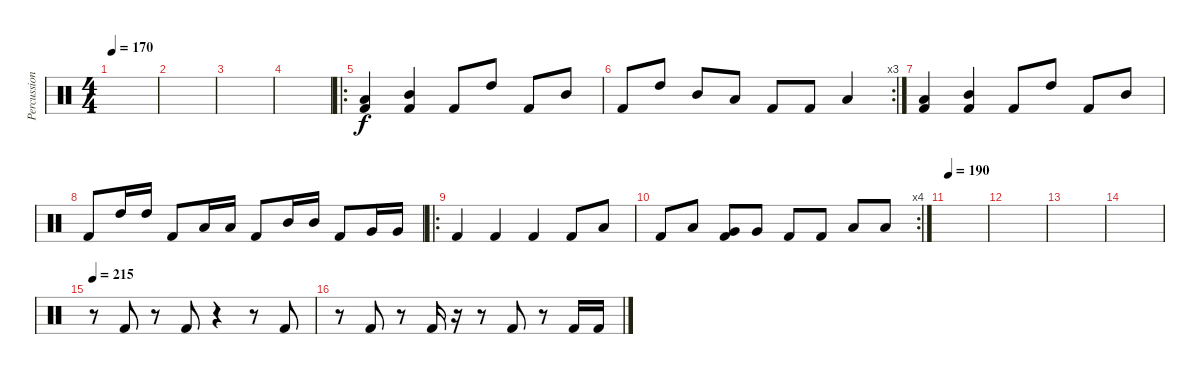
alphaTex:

\track ("Percussion" "Percussion") {instrument percussion}
\staff {score}
\articulation defaults
\ts (4 4)
\tempo 170
\clef neutral
\ks c
|
|
|
|
\ro
("Low Tom (hit)" "Kick (hit) 2").4 ("Mid Tom (hit)" "Kick (hit) 2").4 "Kick (hit) 2".8 "High Tom (hit)".8 "Kick (hit) 2".8 "Mid Tom (hit)".8 |
\rc 3 "Kick (hit) 2".8 "High Tom (hit)".8 "Mid Tom (hit)".8 "Low Tom (hit)".8 "Kick (hit) 2".8 "Kick (hit) 2".8 "Low Tom (hit)".4
|
("Low Tom (hit)" "Kick (hit) 2").4 ("Mid Tom (hit)" "Kick (hit) 2").4 "Kick (hit) 2".8 "High Tom (hit)".8 "Kick (hit) 2".8 "Mid Tom (hit)".8 |
"Kick (hit) 2".8 "High Tom (hit)".16 "High Tom (hit)".16 "Kick (hit) 2".8 "Low Tom (hit)".16 "Low Tom (hit)".16 "Kick (hit) 2".8 "Mid Tom (hit)".16 "Mid Tom (hit)".16 "Kick (hit) 2".8 "Very Low Tom (hit)".16 "Very Low Tom (hit)".16 |
\ro "Kick (hit) 2".4 "Kick (hit) 2".4 "Kick (hit) 2".4 "Kick (hit) 2".8 "Low Tom (hit)".8
|
\rc 4 "Kick (hit) 2".8 "Low Tom (hit)".8
("Very Low Tom (hit)" "Kick (hit) 2").8 "Very Low Tom (hit)".8 "Kick (hit) 2".8 "Kick (hit) 2".8 "Low Tom (hit)".8 "Low Tom (hit)".8 |
\tempo 190
|
|
|
|
\tempo 215
r.8 "Kick (hit) 2".8 r.8 "Kick (hit) 2".8 r.4 r.8 "Kick (hit) 2".8 |
r.8 "Kick (hit) 2".8 r.8 "Kick (hit) 2".16 r.16 r.8 "Kick (hit) 2".8 r.8 "Kick (hit) 2".16 "Kick (hit) 2".16
